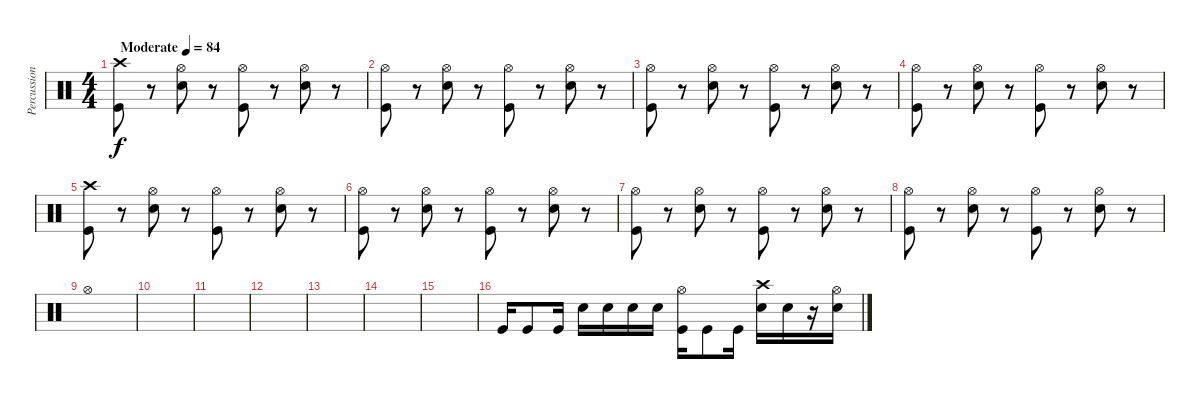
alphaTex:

\track ("Percussion" "Percussion") {instrument percussion}
\staff {score}
\articulation defaults
\ts (4 4)
\tempo (84 "Moderate")
\clef neutral
\ks c
("Crash high (hit)" "Kick (hit)").8{dy f} r.8 ("Hi-Hat (open)" "Snare (hit) 2").8 r.8 ("Hi-Hat (open)" "Kick (hit)").8 r.8 ("Hi-Hat (open)" "Snare (hit) 2").8 r.8 |
("Hi-Hat (open)" "Kick (hit)").8 r.8 ("Hi-Hat (open)" "Snare (hit) 2").8 r.8 ("Hi-Hat (open)" "Kick (hit)").8 r.8 ("Hi-Hat (open)" "Snare (hit) 2").8 r.8 |
("Hi-Hat (open)" "Kick (hit)").8 r.8 ("Hi-Hat (open)" "Snare (hit) 2").8 r.8 ("Hi-Hat (open)" "Kick (hit)").8 r.8 ("Hi-Hat (open)" "Snare (hit) 2").8 r.8 |
("Hi-Hat (open)" "Kick (hit)").8 r.8 ("Hi-Hat (open)" "Snare (hit) 2").8 r.8 ("Hi-Hat (open)" "Kick (hit)").8 r.8 ("Hi-Hat (open)" "Snare (hit) 2").8 r.8 |
("Crash high (hit)" "Kick (hit)").8 r.8 ("Hi-Hat (open)" "Snare (hit) 2").8 r.8 ("Hi-Hat (open)" "Kick (hit)").8 r.8 ("Hi-Hat (open)" "Snare (hit) 2").8 r.8 |
("Hi-Hat (open)" "Kick (hit)").8 r.8 ("Hi-Hat (open)" "Snare (hit) 2").8 r.8 ("Hi-Hat (open)" "Kick (hit)").8 r.8 ("Hi-Hat (open)" "Snare (hit) 2").8 r.8 |
("Hi-Hat (open)" "Kick (hit)").8 r.8 ("Hi-Hat (open)" "Snare (hit) 2").8 r.8 ("Hi-Hat (open)" "Kick (hit)").8 r.8 ("Hi-Hat (open)" "Snare (hit) 2").8 r.8 |
("Hi-Hat (open)" "Kick (hit)").8 r.8 ("Hi-Hat (open)" "Snare (hit) 2").8 r.8 ("Hi-Hat (open)" "Kick (hit)").8 r.8 ("Hi-Hat (open)" "Snare (hit) 2").8 r.8 |
"Hi-Hat (open)".1 |
|
|
|
|
|
|
"Kick (hit)".16 "Kick (hit)".8 "Kick (hit)".16 "Electric Snare (hit)".16 "Electric Snare (hit)".16 "Electric Snare (hit)".16 "Electric Snare (hit)".16 ("Hi-Hat (open)" "Kick (hit)").16 "Kick (hit)".8 "Kick (hit)".16 ("Crash high (hit)" "Electric Snare (hit)").16 "Electric Snare (hit)".16 r.16 ("Hi-Hat (open)" "Electric Snare (hit)").16
